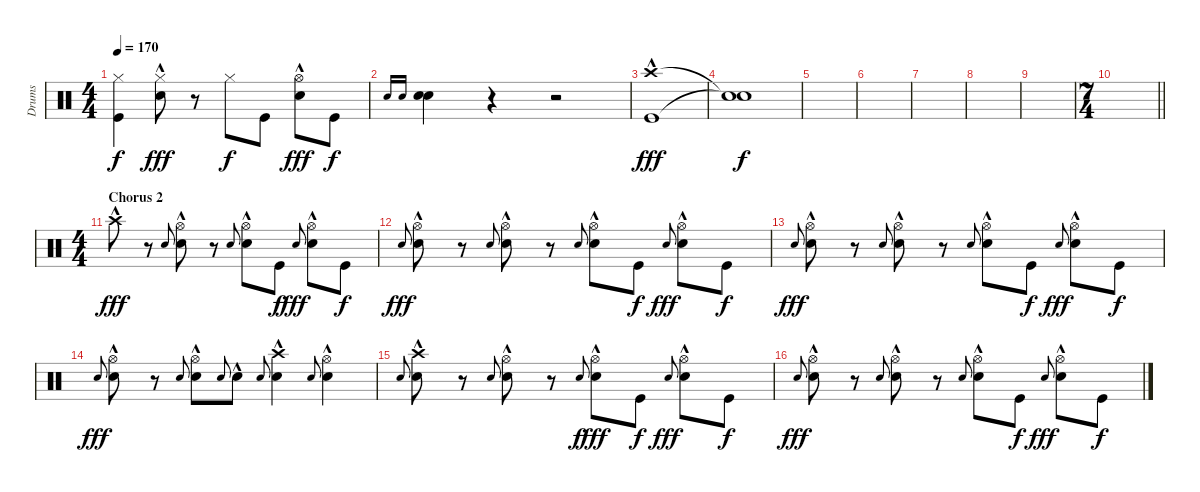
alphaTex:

\track ("Drums" "Drums") {instrument percussion}
\staff {score}
\articulation defaults
\ts (4 4)
\tempo 170
\clef neutral
\ks c
("Hi-Hat (closed)" "Kick (hit)").4{dy f} ("Hi-Hat (closed)" "Electric Snare (hit)"{hac}).8{dy fff} r.8 "Hi-Hat (closed)".8{dy f} "Kick (hit)".8 ("Hi-Hat (open)" "Electric Snare (hit)"{hac}).8{dy fff} "Kick (hit)".8{dy f} |
"Electric Snare (hit)".16{gr onbeat} "Electric Snare (hit)".16{gr onbeat} ("Electric Snare (hit)" "Electric Snare (hit)").4 r.4 r.2 |
("Crash high (hit)"{hac} "Kick (hit)").1{dy fff} |
("Snare (hit)"{t} "Snare (hit)"{t}).1{dy f} |
|
|
|
|
|
\ts (7 4)
\barLineRight lightlight
|
\ts (4 4)
\section ("" "Chorus 2")
"Crash high (hit)"{hac}.8{dy fff} r.8 "Electric Snare (hit)"{sl}.8{gr onbeat} ("Hi-Hat (open)"{hac} "Electric Snare (hit)"{hac}).8 r.8 "Electric Snare (hit)"{sl}.8{gr onbeat} ("Hi-Hat (open)"{hac} "Electric Snare (hit)"{hac}).8 "Kick (hit)".8{dy f} "Electric Snare (hit)"{sl}.8{gr onbeat dy fff} ("Hi-Hat (open)"{hac} "Electric Snare (hit)"{hac}).8 "Kick (hit)".8{dy f} |
"Electric Snare (hit)"{sl}.8{gr onbeat dy fff} ("Hi-Hat (open)"{hac} "Electric Snare (hit)"{hac}).8 r.8 "Electric Snare (hit)"{sl}.8{gr onbeat} ("Hi-Hat (open)"{hac} "Electric Snare (hit)"{hac}).8 r.8 "Electric Snare (hit)"{sl}.8{gr onbeat} ("Hi-Hat (open)"{hac} "Electric Snare (hit)"{hac}).8 "Kick (hit)".8{dy f} "Electric Snare (hit)"{sl}.8{gr onbeat dy fff} ("Hi-Hat (open)"{hac} "Electric Snare (hit)"{hac}).8 "Kick (hit)".8{dy f} |
"Electric Snare (hit)"{sl}.8{gr onbeat dy fff} ("Hi-Hat (open)"{hac} "Electric Snare (hit)"{hac}).8 r.8 "Electric Snare (hit)"{sl}.8{gr onbeat} ("Hi-Hat (open)"{hac} "Electric Snare (hit)"{hac}).8 r.8 "Electric Snare (hit)"{sl}.8{gr onbeat} ("Hi-Hat (open)"{hac} "Electric Snare (hit)"{hac}).8 "Kick (hit)".8{dy f} "Electric Snare (hit)"{sl}.8{gr onbeat dy fff} ("Hi-Hat (open)"{hac} "Electric Snare (hit)"{hac}).8 "Kick (hit)".8{dy f} |
"Electric Snare (hit)"{sl}.8{gr onbeat dy fff} ("Hi-Hat (open)"{hac} "Electric Snare (hit)"{hac}).8 r.8 "Electric Snare (hit)"{sl}.8{gr onbeat} ("Hi-Hat (open)"{hac} "Electric Snare (hit)"{hac}).8 "Electric Snare (hit)"{sl}.8{gr onbeat} "Electric Snare (hit)"{hac}.8 "Electric Snare (hit)"{sl}.8{gr onbeat} ("Crash high (hit)"{hac} "Electric Snare (hit)"{hac}).4 "Electric Snare (hit)"{sl}.8{gr onbeat} ("Hi-Hat (open)" "Electric Snare (hit)"{hac}).4 |
"Electric Snare (hit)"{sl}.8{gr onbeat} ("Crash high (hit)"{hac} "Electric Snare (hit)"{hac}).8 r.8 "Electric Snare (hit)"{sl}.8{gr onbeat} ("Hi-Hat (open)"{hac} "Electric Snare (hit)"{hac}).8 r.8 "Electric Snare (hit)"{sl}.8{gr onbeat dy f} ("Hi-Hat (open)"{hac} "Electric Snare (hit)").8{dy fff} "Kick (hit)".8{dy f} "Electric Snare (hit)"{sl}.8{gr onbeat dy fff} ("Hi-Hat (open)"{hac} "Electric Snare (hit)"{hac}).8 "Kick (hit)".8{dy f} |
"Electric Snare (hit)"{sl}.8{gr onbeat dy fff} ("Hi-Hat (open)"{hac} "Electric Snare (hit)"{hac}).8 r.8 "Electric Snare (hit)"{sl}.8{gr onbeat} ("Hi-Hat (open)"{hac} "Electric Snare (hit)"{hac}).8 r.8 "Electric Snare (hit)"{sl}.8{gr onbeat} ("Hi-Hat (open)"{hac} "Electric Snare (hit)"{hac}).8 "Kick (hit)".8{dy f} "Electric Snare (hit)"{sl}.8{gr onbeat dy fff} ("Hi-Hat (open)"{hac} "Electric Snare (hit)"{hac}).8 "Kick (hit)".8{dy f}
